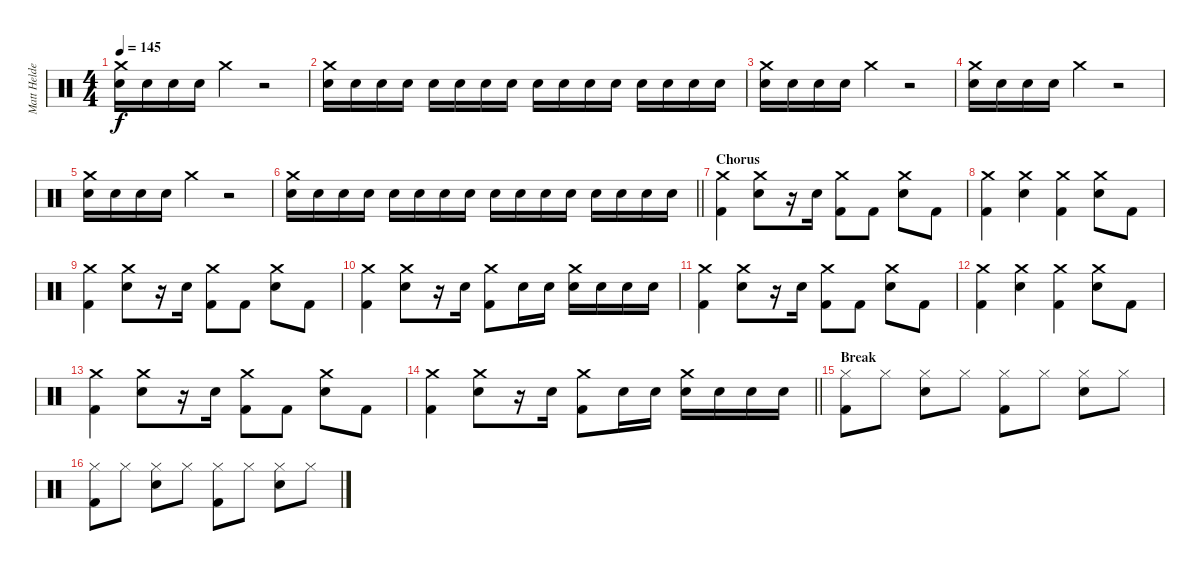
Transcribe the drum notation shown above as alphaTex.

\track ("Matt Helders" "Matt Helde") {instrument percussion}
\staff {score}
\articulation defaults
\ts (4 4)
\tempo 145
\clef neutral
\ks c
("Electric Snare (hit)" "Crash medium (hit)").16{dy f} "Electric Snare (hit)".16 "Electric Snare (hit)".16 "Electric Snare (hit)".16 "Crash medium (hit)".4 r.2 |
("Electric Snare (hit)" "Crash medium (hit)").16 "Electric Snare (hit)".16 "Electric Snare (hit)".16 "Electric Snare (hit)".16 "Electric Snare (hit)".16 "Electric Snare (hit)".16 "Electric Snare (hit)".16 "Electric Snare (hit)".16 "Electric Snare (hit)".16 "Electric Snare (hit)".16 "Electric Snare (hit)".16 "Electric Snare (hit)".16 "Electric Snare (hit)".16 "Electric Snare (hit)".16 "Electric Snare (hit)".16 "Electric Snare (hit)".16 |
("Electric Snare (hit)" "Crash medium (hit)").16 "Electric Snare (hit)".16 "Electric Snare (hit)".16 "Electric Snare (hit)".16 "Crash medium (hit)".4 r.2 |
("Electric Snare (hit)" "Crash medium (hit)").16 "Electric Snare (hit)".16 "Electric Snare (hit)".16 "Electric Snare (hit)".16 "Crash medium (hit)".4 r.2 |
("Electric Snare (hit)" "Crash medium (hit)").16 "Electric Snare (hit)".16 "Electric Snare (hit)".16 "Electric Snare (hit)".16 "Crash medium (hit)".4 r.2 |
\barLineRight lightlight
("Electric Snare (hit)" "Crash medium (hit)").16 "Electric Snare (hit)".16 "Electric Snare (hit)".16 "Electric Snare (hit)".16 "Electric Snare (hit)".16 "Electric Snare (hit)".16 "Electric Snare (hit)".16 "Electric Snare (hit)".16 "Electric Snare (hit)".16 "Electric Snare (hit)".16 "Electric Snare (hit)".16 "Electric Snare (hit)".16 "Electric Snare (hit)".16 "Electric Snare (hit)".16 "Electric Snare (hit)".16 "Electric Snare (hit)".16 |
\section ("" "Chorus")
("Kick (hit) 2" "Crash medium (hit)").4 ("Electric Snare (hit)" "Crash medium (hit)").8 r.16 "Electric Snare (hit)".16 ("Kick (hit) 2" "Crash medium (hit)").8 "Kick (hit) 2".8 ("Electric Snare (hit)" "Crash medium (hit)").8 "Kick (hit) 2".8 |
("Kick (hit) 2" "Crash medium (hit)").4 ("Electric Snare (hit)" "Crash medium (hit)").4 ("Kick (hit) 2" "Crash medium (hit)").4 ("Electric Snare (hit)" "Crash medium (hit)").8 "Kick (hit) 2".8 |
("Kick (hit) 2" "Crash medium (hit)").4 ("Electric Snare (hit)" "Crash medium (hit)").8 r.16 "Electric Snare (hit)".16 ("Kick (hit) 2" "Crash medium (hit)").8 "Kick (hit) 2".8 ("Electric Snare (hit)" "Crash medium (hit)").8 "Kick (hit) 2".8 |
("Kick (hit) 2" "Crash medium (hit)").4 ("Electric Snare (hit)" "Crash medium (hit)").8 r.16 "Electric Snare (hit)".16 ("Kick (hit) 2" "Crash medium (hit)").8 "Electric Snare (hit)".16 "Electric Snare (hit)".16 ("Electric Snare (hit)" "Crash medium (hit)").16 "Electric Snare (hit)".16 "Electric Snare (hit)".16 "Electric Snare (hit)".16 |
("Kick (hit) 2" "Crash medium (hit)").4 ("Electric Snare (hit)" "Crash medium (hit)").8 r.16 "Electric Snare (hit)".16 ("Kick (hit) 2" "Crash medium (hit)").8 "Kick (hit) 2".8 ("Electric Snare (hit)" "Crash medium (hit)").8 "Kick (hit) 2".8 |
("Kick (hit) 2" "Crash medium (hit)").4 ("Electric Snare (hit)" "Crash medium (hit)").4 ("Kick (hit) 2" "Crash medium (hit)").4 ("Electric Snare (hit)" "Crash medium (hit)").8 "Kick (hit) 2".8 |
("Kick (hit) 2" "Crash medium (hit)").4 ("Electric Snare (hit)" "Crash medium (hit)").8 r.16 "Electric Snare (hit)".16 ("Kick (hit) 2" "Crash medium (hit)").8 "Kick (hit) 2".8 ("Electric Snare (hit)" "Crash medium (hit)").8 "Kick (hit) 2".8 |
\barLineRight lightlight
("Kick (hit) 2" "Crash medium (hit)").4 ("Electric Snare (hit)" "Crash medium (hit)").8 r.16 "Electric Snare (hit)".16 ("Kick (hit) 2" "Crash medium (hit)").8 "Electric Snare (hit)".16 "Electric Snare (hit)".16 ("Electric Snare (hit)" "Crash medium (hit)").16 "Electric Snare (hit)".16 "Electric Snare (hit)".16 "Electric Snare (hit)".16 |
\section ("" "Break")
("Kick (hit) 2" "Hi-Hat (closed)").8 "Hi-Hat (closed)".8 ("Electric Snare (hit)" "Hi-Hat (closed)").8 "Hi-Hat (closed)".8 ("Kick (hit) 2" "Hi-Hat (closed)").8 "Hi-Hat (closed)".8 ("Electric Snare (hit)" "Hi-Hat (closed)").8 "Hi-Hat (closed)".8 |
("Kick (hit) 2" "Hi-Hat (closed)").8 "Hi-Hat (closed)".8 ("Electric Snare (hit)" "Hi-Hat (closed)").8 "Hi-Hat (closed)".8 ("Kick (hit) 2" "Hi-Hat (closed)").8 "Hi-Hat (closed)".8 ("Electric Snare (hit)" "Hi-Hat (closed)").8 "Hi-Hat (closed)".8
